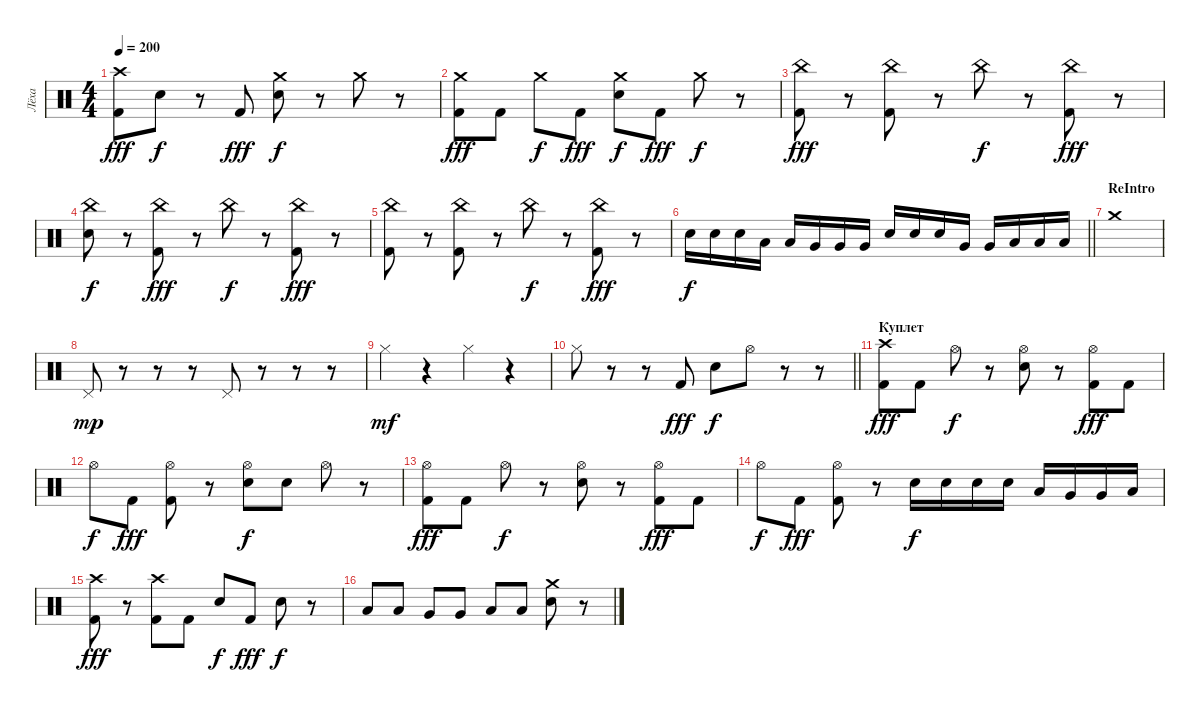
\track ("Лёха" "Лёха") {instrument percussion}
\staff {score}
\articulation defaults
\ts (4 4)
\tempo 200
\clef neutral
\ks c
("Crash high (hit)" "Kick (hit) 2").8{dy fff} "Electric Snare (hit)".8{dy f} r.8 "Kick (hit) 2".8{dy fff} ("Crash medium (hit)" "Electric Snare (hit)").8{dy f} r.8 "Crash medium (hit)".8 r.8 |
("Crash medium (hit)" "Kick (hit) 2").8{dy fff} "Kick (hit) 2".8 "Crash medium (hit)".8{dy f} "Kick (hit) 2".8{dy fff} ("Crash medium (hit)" "Electric Snare (hit)").8{dy f} "Kick (hit) 2".8{dy fff} "Crash medium (hit)".8{dy f} r.8 |
("China (hit)" "Kick (hit) 2").8{dy fff} r.8 ("China (hit)" "Kick (hit) 2").8 r.8 "China (hit)".8{dy f} r.8 ("China (hit)" "Kick (hit) 2").8{dy fff} r.8 |
("China (hit)" "Electric Snare (hit)").8{dy f} r.8 ("China (hit)" "Kick (hit) 2").8{dy fff} r.8 "China (hit)".8{dy f} r.8 ("China (hit)" "Kick (hit) 2").8{dy fff} r.8 |
("China (hit)" "Kick (hit) 2").8 r.8 ("China (hit)" "Kick (hit) 2").8 r.8 "China (hit)".8{dy f} r.8 ("China (hit)" "Kick (hit) 2").8{dy fff} r.8 |
\barLineRight lightlight "Electric Snare (hit)".16{dy f} "Electric Snare (hit)".16 "Electric Snare (hit)".16 "Low Tom (hit)".16 "Low Tom (hit)".16 "Very Low Tom (hit)".16 "Very Low Tom (hit)".16 "Very Low Tom (hit)".16 "Electric Snare (hit)".16 "Electric Snare (hit)".16 "Electric Snare (hit)".16 "Very Low Tom (hit)".16 "Very Low Tom (hit)".16 "Low Floor Tom (hit)".16 "Low Floor Tom (hit)".16 "Low Floor Tom (hit)".16
|
\section ("" "ReIntro")
"Crash medium (hit)".1 |
"Pedal Hi-Hat (hit)".8{dy mp} r.8 r.8 r.8 "Pedal Hi-Hat (hit)".8 r.8 r.8 r.8 |
"Hi-Hat (closed)".4{dy mf} r.4 "Hi-Hat (closed)".4 r.4 |
\barLineRight lightlight "Hi-Hat (closed)".8
r.8 r.8 "Kick (hit) 2".8{dy fff} "Electric Snare (hit)".8{dy f} "Hi-Hat (open)".8 r.8 r.8 |
\section ("" "Куплет")
("Crash high (hit)" "Kick (hit) 2").8{dy fff} "Kick (hit) 2".8 "Hi-Hat (open)".8{dy f} r.8 ("Hi-Hat (open)" "Electric Snare (hit)").8 r.8 ("Hi-Hat (open)" "Kick (hit) 2").8{dy fff} "Kick (hit) 2".8 |
"Hi-Hat (open)".8{dy f} "Kick (hit) 2".8{dy fff} ("Hi-Hat (open)" "Kick (hit) 2").8 r.8 ("Hi-Hat (open)" "Electric Snare (hit)").8{dy f} "Electric Snare (hit)".8 "Hi-Hat (open)".8 r.8 |
("Hi-Hat (open)" "Kick (hit) 2").8{dy fff} "Kick (hit) 2".8 "Hi-Hat (open)".8{dy f} r.8 ("Hi-Hat (open)" "Electric Snare (hit)").8 r.8 ("Hi-Hat (open)" "Kick (hit) 2").8{dy fff} "Kick (hit) 2".8 |
"Hi-Hat (open)".8{dy f} "Kick (hit) 2".8{dy fff} ("Hi-Hat (open)" "Kick (hit) 2").8 r.8 "Electric Snare (hit)".16{dy f} "Electric Snare (hit)".16 "Electric Snare (hit)".16 "Electric Snare (hit)".16 "Low Tom (hit)".16 "Very Low Tom (hit)".16 "Very Low Tom (hit)".16 "Low Floor Tom (hit)".16 |
("Crash high (hit)" "Kick (hit) 2").8{dy fff} r.8 ("Crash high (hit)" "Kick (hit) 2").8 "Kick (hit) 2".8 "Electric Snare (hit)".8{dy f} "Kick (hit) 2".8{dy fff} "Electric Snare (hit)".8{dy f} r.8 |
"Low Tom (hit)".8 "Low Tom (hit)".8 "Very Low Tom (hit)".8 "Very Low Tom (hit)".8 "Low Floor Tom (hit)".8 "Low Floor Tom (hit)".8 ("Crash medium (hit)" "Electric Snare (hit)").8 r.8
